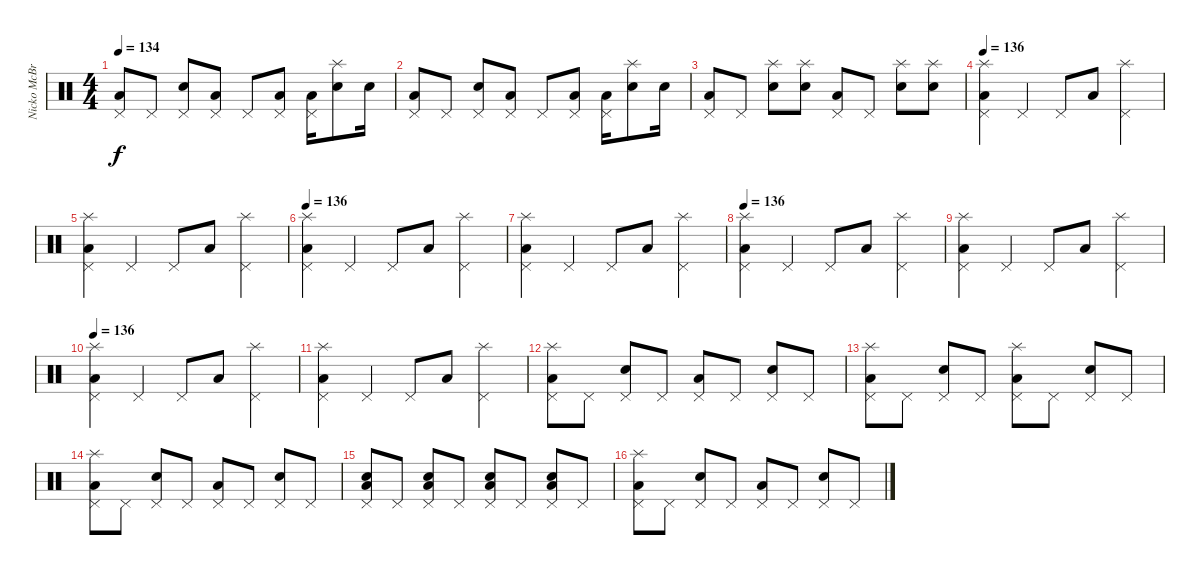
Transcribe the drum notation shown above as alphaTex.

\track ("Nicko McBrian" "Nicko McBr") {instrument percussion}
\staff {score}
\articulation defaults
\ts (4 4)
\tempo 134
\clef neutral
\ks c
("Low Floor Tom (hit)" "Pedal Hi-Hat (hit)").8{dy f} "Pedal Hi-Hat (hit)".8 ("Electric Snare (hit)" "Pedal Hi-Hat (hit)").8 ("Low Floor Tom (hit)" "Pedal Hi-Hat (hit)").8 "Pedal Hi-Hat (hit)".8 ("Low Floor Tom (hit)" "Pedal Hi-Hat (hit)").8 ("Low Floor Tom (hit)" "Pedal Hi-Hat (hit)").16 ("Electric Snare (hit)" "Splash (hit)").8 "Electric Snare (hit)".16 |
("Low Floor Tom (hit)" "Pedal Hi-Hat (hit)").8 "Pedal Hi-Hat (hit)".8 ("Electric Snare (hit)" "Pedal Hi-Hat (hit)").8 ("Low Floor Tom (hit)" "Pedal Hi-Hat (hit)").8 "Pedal Hi-Hat (hit)".8 ("Low Floor Tom (hit)" "Pedal Hi-Hat (hit)").8 ("Low Floor Tom (hit)" "Pedal Hi-Hat (hit)").16 ("Electric Snare (hit)" "Splash (hit)").8 "Electric Snare (hit)".16 |
("Low Floor Tom (hit)" "Pedal Hi-Hat (hit)").8 "Pedal Hi-Hat (hit)".8 ("Electric Snare (hit)" "Splash (hit)").8 ("Electric Snare (hit)" "Splash (hit)").8 ("Low Floor Tom (hit)" "Pedal Hi-Hat (hit)").8 "Pedal Hi-Hat (hit)".8 ("Electric Snare (hit)" "Splash (hit)").8 ("Electric Snare (hit)" "Splash (hit)").8 |
\tempo 136
("Low Floor Tom (hit)" "Pedal Hi-Hat (hit)" "Splash (hit)").4 "Pedal Hi-Hat (hit)".4 "Pedal Hi-Hat (hit)".8 "Low Floor Tom (hit)".8 ("Pedal Hi-Hat (hit)" "Splash (hit)").4 |
("Low Floor Tom (hit)" "Pedal Hi-Hat (hit)" "Splash (hit)").4 "Pedal Hi-Hat (hit)".4 "Pedal Hi-Hat (hit)".8 "Low Floor Tom (hit)".8 ("Pedal Hi-Hat (hit)" "Splash (hit)").4 |
\tempo 136
("Low Floor Tom (hit)" "Pedal Hi-Hat (hit)" "Splash (hit)").4 "Pedal Hi-Hat (hit)".4 "Pedal Hi-Hat (hit)".8 "Low Floor Tom (hit)".8 ("Pedal Hi-Hat (hit)" "Splash (hit)").4 |
("Low Floor Tom (hit)" "Pedal Hi-Hat (hit)" "Splash (hit)").4 "Pedal Hi-Hat (hit)".4 "Pedal Hi-Hat (hit)".8 "Low Floor Tom (hit)".8 ("Pedal Hi-Hat (hit)" "Splash (hit)").4 |
\tempo 136
("Low Floor Tom (hit)" "Pedal Hi-Hat (hit)" "Splash (hit)").4 "Pedal Hi-Hat (hit)".4 "Pedal Hi-Hat (hit)".8 "Low Floor Tom (hit)".8 ("Pedal Hi-Hat (hit)" "Splash (hit)").4 |
("Low Floor Tom (hit)" "Pedal Hi-Hat (hit)" "Splash (hit)").4 "Pedal Hi-Hat (hit)".4 "Pedal Hi-Hat (hit)".8 "Low Floor Tom (hit)".8 ("Pedal Hi-Hat (hit)" "Splash (hit)").4 |
\tempo 136
("Low Floor Tom (hit)" "Pedal Hi-Hat (hit)" "Splash (hit)").4 "Pedal Hi-Hat (hit)".4 "Pedal Hi-Hat (hit)".8 "Low Floor Tom (hit)".8 ("Pedal Hi-Hat (hit)" "Splash (hit)").4 |
("Low Floor Tom (hit)" "Pedal Hi-Hat (hit)" "Splash (hit)").4 "Pedal Hi-Hat (hit)".4 "Pedal Hi-Hat (hit)".8 "Low Floor Tom (hit)".8 ("Pedal Hi-Hat (hit)" "Splash (hit)").4 |
("Low Floor Tom (hit)" "Pedal Hi-Hat (hit)" "Splash (hit)").8 "Pedal Hi-Hat (hit)".8 ("Electric Snare (hit)" "Pedal Hi-Hat (hit)").8 "Pedal Hi-Hat (hit)".8 ("Low Floor Tom (hit)" "Pedal Hi-Hat (hit)").8 "Pedal Hi-Hat (hit)".8 ("Electric Snare (hit)" "Pedal Hi-Hat (hit)").8 "Pedal Hi-Hat (hit)".8 |
("Low Floor Tom (hit)" "Pedal Hi-Hat (hit)" "Splash (hit)").8 "Pedal Hi-Hat (hit)".8 ("Electric Snare (hit)" "Pedal Hi-Hat (hit)").8 "Pedal Hi-Hat (hit)".8 ("Low Floor Tom (hit)" "Pedal Hi-Hat (hit)" "Splash (hit)").8 "Pedal Hi-Hat (hit)".8 ("Electric Snare (hit)" "Pedal Hi-Hat (hit)").8 "Pedal Hi-Hat (hit)".8 |
("Low Floor Tom (hit)" "Pedal Hi-Hat (hit)" "Splash (hit)").8 "Pedal Hi-Hat (hit)".8 ("Electric Snare (hit)" "Pedal Hi-Hat (hit)").8 "Pedal Hi-Hat (hit)".8 ("Low Floor Tom (hit)" "Pedal Hi-Hat (hit)").8 "Pedal Hi-Hat (hit)".8 ("Electric Snare (hit)" "Pedal Hi-Hat (hit)").8 "Pedal Hi-Hat (hit)".8 |
("Electric Snare (hit)" "Low Floor Tom (hit)" "Pedal Hi-Hat (hit)").8 "Pedal Hi-Hat (hit)".8 ("Electric Snare (hit)" "Low Floor Tom (hit)" "Pedal Hi-Hat (hit)").8 "Pedal Hi-Hat (hit)".8 ("Electric Snare (hit)" "Low Floor Tom (hit)" "Pedal Hi-Hat (hit)").8 "Pedal Hi-Hat (hit)".8 ("Electric Snare (hit)" "Low Floor Tom (hit)" "Pedal Hi-Hat (hit)").8 "Pedal Hi-Hat (hit)".8 |
("Low Floor Tom (hit)" "Pedal Hi-Hat (hit)" "Splash (hit)").8 "Pedal Hi-Hat (hit)".8 ("Electric Snare (hit)" "Pedal Hi-Hat (hit)").8 "Pedal Hi-Hat (hit)".8 ("Low Floor Tom (hit)" "Pedal Hi-Hat (hit)").8 "Pedal Hi-Hat (hit)".8 ("Electric Snare (hit)" "Pedal Hi-Hat (hit)").8 "Pedal Hi-Hat (hit)".8
